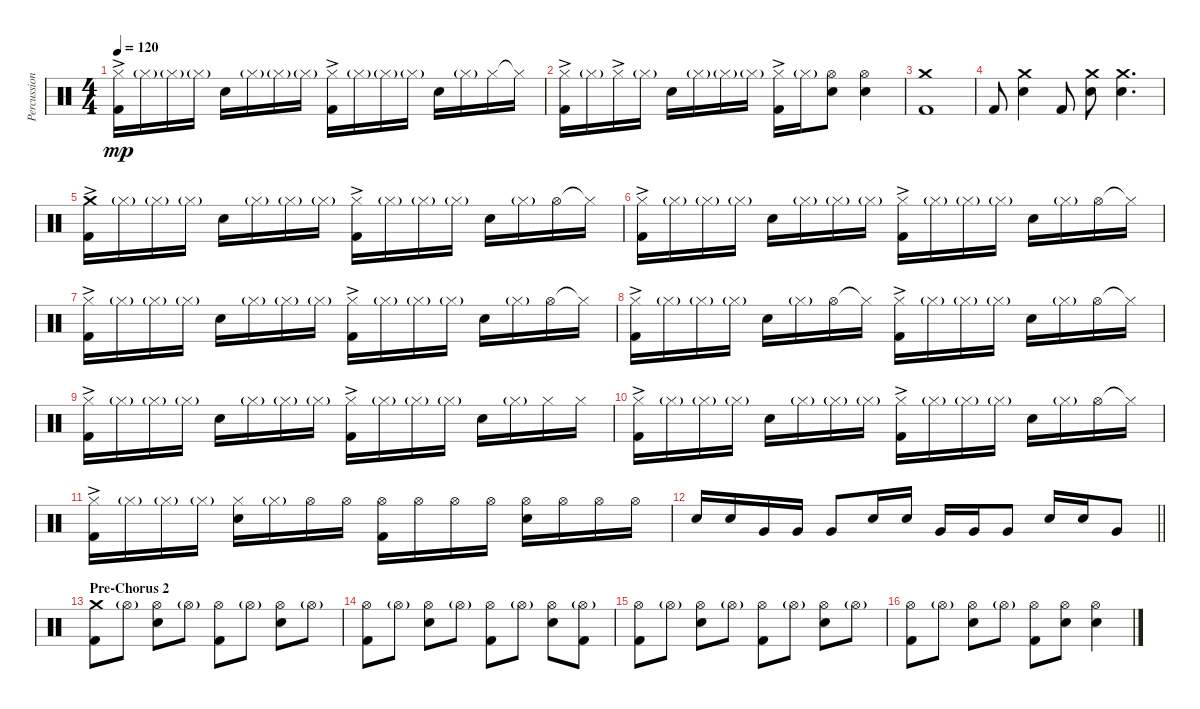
\track ("Percussion" "Percussion") {instrument percussion}
\staff {score}
\articulation defaults
\ts (4 4)
\tempo 120
\clef neutral
\ks c
("Hi-Hat (closed)"{ac} "Kick (hit) 2").16{dy mp volume 16} "Hi-Hat (closed)"{g}.16 "Hi-Hat (closed)"{g}.16 "Hi-Hat (closed)"{g}.16 "Electric Snare (hit)".16 "Hi-Hat (closed)"{g}.16 "Hi-Hat (closed)"{g}.16 "Hi-Hat (closed)"{g}.16 ("Hi-Hat (closed)"{ac} "Kick (hit) 2"{ac}).16 "Hi-Hat (closed)"{g}.16 "Hi-Hat (closed)"{g}.16 "Hi-Hat (closed)"{g}.16 "Electric Snare (hit)".16 "Hi-Hat (closed)"{g}.16 "Hi-Hat (closed)".16 "Hi-Hat (closed)"{t}.16 |
("Hi-Hat (closed)"{ac} "Kick (hit) 2").16 "Hi-Hat (closed)"{g}.16 "Hi-Hat (closed)"{ac}.16 "Hi-Hat (closed)"{g}.16 "Electric Snare (hit)".16 "Hi-Hat (closed)"{g}.16 "Hi-Hat (closed)"{g}.16 "Hi-Hat (closed)"{g}.16 ("Hi-Hat (closed)"{ac} "Kick (hit) 2").16 "Hi-Hat (closed)"{g}.16 ("Hi-Hat (open)" "Electric Snare (hit)").8 ("Hi-Hat (open)" "Electric Snare (hit)").4 |
("Crash medium (hit)" "Kick (hit) 2").1 |
"Kick (hit) 2".8 ("Crash medium (hit)" "Electric Snare (hit)").4 "Kick (hit) 2".8 ("Crash medium (hit)" "Electric Snare (hit)").8 ("Crash medium (hit)" "Electric Snare (hit)").4{d} |
("Crash medium (hit)"{ac} "Kick (hit) 2").16{volume 16} "Hi-Hat (closed)"{g}.16 "Hi-Hat (closed)"{g}.16 "Hi-Hat (closed)"{g}.16 "Electric Snare (hit)".16 "Hi-Hat (closed)"{g}.16 "Hi-Hat (closed)"{g}.16 "Hi-Hat (closed)"{g}.16 ("Hi-Hat (closed)"{ac} "Kick (hit) 2"{ac}).16 "Hi-Hat (closed)"{g}.16 "Hi-Hat (closed)"{g}.16 "Hi-Hat (closed)"{g}.16 "Electric Snare (hit)".16 "Hi-Hat (closed)"{g}.16 "Hi-Hat (open)".16 "Hi-Hat (closed)"{t}.16 |
("Hi-Hat (closed)"{ac} "Kick (hit) 2").16 "Hi-Hat (closed)"{g}.16 "Hi-Hat (closed)"{g}.16 "Hi-Hat (closed)"{g}.16 "Electric Snare (hit)".16 "Hi-Hat (closed)"{g}.16 "Hi-Hat (closed)"{g}.16 "Hi-Hat (closed)"{g}.16 ("Hi-Hat (closed)"{ac} "Kick (hit) 2"{ac}).16 "Hi-Hat (closed)"{g}.16 "Hi-Hat (closed)"{g}.16 "Hi-Hat (closed)"{g}.16 "Electric Snare (hit)".16 "Hi-Hat (closed)"{g}.16 "Hi-Hat (open)".16 "Hi-Hat (closed)"{t}.16 |
("Hi-Hat (closed)"{ac} "Kick (hit) 2").16 "Hi-Hat (closed)"{g}.16 "Hi-Hat (closed)"{g}.16 "Hi-Hat (closed)"{g}.16 "Electric Snare (hit)".16 "Hi-Hat (closed)"{g}.16 "Hi-Hat (closed)"{g}.16 "Hi-Hat (closed)"{g}.16 ("Hi-Hat (closed)"{ac} "Kick (hit) 2"{ac}).16 "Hi-Hat (closed)"{g}.16 "Hi-Hat (closed)"{g}.16 "Hi-Hat (closed)"{g}.16 "Electric Snare (hit)".16 "Hi-Hat (closed)"{g}.16 "Hi-Hat (open)".16 "Hi-Hat (closed)"{t}.16 |
("Hi-Hat (closed)"{ac} "Kick (hit) 2").16 "Hi-Hat (closed)"{g}.16 "Hi-Hat (closed)"{g}.16 "Hi-Hat (closed)"{g}.16 "Electric Snare (hit)".16 "Hi-Hat (closed)"{g}.16 "Hi-Hat (open)".16 "Hi-Hat (closed)"{t}.16 ("Hi-Hat (closed)"{ac} "Kick (hit) 2"{ac}).16 "Hi-Hat (closed)"{g}.16 "Hi-Hat (closed)"{g}.16 "Hi-Hat (closed)"{g}.16 "Electric Snare (hit)".16 "Hi-Hat (closed)"{g}.16 "Hi-Hat (open)".16 "Hi-Hat (closed)"{t}.16 |
("Hi-Hat (closed)"{ac} "Kick (hit) 2").16 "Hi-Hat (closed)"{g}.16 "Hi-Hat (closed)"{g}.16 "Hi-Hat (closed)"{g}.16 "Electric Snare (hit)".16 "Hi-Hat (closed)"{g}.16 "Hi-Hat (closed)"{g}.16 "Hi-Hat (closed)"{g}.16 ("Hi-Hat (closed)"{ac} "Kick (hit) 2"{ac}).16 "Hi-Hat (closed)"{g}.16 "Hi-Hat (closed)"{g}.16 "Hi-Hat (closed)"{g}.16 "Electric Snare (hit)".16 "Hi-Hat (closed)"{g}.16 "Hi-Hat (closed)".16 "Hi-Hat (closed)".16 |
("Hi-Hat (closed)"{ac} "Kick (hit) 2").16 "Hi-Hat (closed)"{g}.16 "Hi-Hat (closed)"{g}.16 "Hi-Hat (closed)"{g}.16 "Electric Snare (hit)".16 "Hi-Hat (closed)"{g}.16 "Hi-Hat (closed)"{g}.16 "Hi-Hat (closed)"{g}.16 ("Hi-Hat (closed)"{ac} "Kick (hit) 2"{ac}).16 "Hi-Hat (closed)"{g}.16 "Hi-Hat (closed)"{g}.16 "Hi-Hat (closed)"{g}.16 "Electric Snare (hit)".16 "Hi-Hat (closed)"{g}.16 "Hi-Hat (open)".16 "Hi-Hat (closed)"{t}.16 |
("Hi-Hat (closed)"{ac} "Kick (hit) 2").16 "Hi-Hat (closed)"{g}.16 "Hi-Hat (closed)"{g}.16 "Hi-Hat (closed)"{g}.16 ("Hi-Hat (closed)" "Electric Snare (hit)").16 "Hi-Hat (closed)"{g}.16 "Hi-Hat (open)".16 "Hi-Hat (open)".16 ("Hi-Hat (open)" "Kick (hit) 2").16 "Hi-Hat (open)".16 "Hi-Hat (open)".16 "Hi-Hat (open)".16 ("Hi-Hat (open)" "Electric Snare (hit)").16 "Hi-Hat (open)".16 "Hi-Hat (open)".16 "Hi-Hat (open)".16 |
\barLineRight lightlight "Electric Snare (hit)".16 "Electric Snare (hit)".16 "Very Low Tom (hit)".16 "Very Low Tom (hit)".16 "Very Low Tom (hit)".8 "Electric Snare (hit)".16 "Electric Snare (hit)".16 "Very Low Tom (hit)".16 "Very Low Tom (hit)".16 "Very Low Tom (hit)".8 "Electric Snare (hit)".16 "Electric Snare (hit)".16 "Very Low Tom (hit)".8
|
\section ("" "Pre-Chorus 2")
("Crash medium (hit)" "Kick (hit) 2").8 "Hi-Hat (open)"{g}.8 ("Hi-Hat (open)" "Electric Snare (hit)").8 "Hi-Hat (open)"{g}.8 ("Hi-Hat (open)" "Kick (hit) 2").8 "Hi-Hat (open)"{g}.8 ("Hi-Hat (open)" "Electric Snare (hit)").8 "Hi-Hat (open)"{g}.8 |
("Hi-Hat (open)" "Kick (hit) 2").8 "Hi-Hat (open)"{g}.8 ("Hi-Hat (open)" "Electric Snare (hit)").8 "Hi-Hat (open)"{g}.8 ("Hi-Hat (open)" "Kick (hit) 2").8 "Hi-Hat (open)"{g}.8 ("Hi-Hat (open)" "Electric Snare (hit)").8 ("Hi-Hat (open)"{g} "Kick (hit) 2").8 |
("Hi-Hat (open)" "Kick (hit) 2").8 "Hi-Hat (open)"{g}.8 ("Hi-Hat (open)" "Electric Snare (hit)").8 "Hi-Hat (open)"{g}.8 ("Hi-Hat (open)" "Kick (hit) 2").8 "Hi-Hat (open)"{g}.8 ("Hi-Hat (open)" "Electric Snare (hit)").8 "Hi-Hat (open)"{g}.8 |
("Hi-Hat (open)" "Kick (hit) 2").8 "Hi-Hat (open)"{g}.8 ("Hi-Hat (open)" "Electric Snare (hit)").8 "Hi-Hat (open)"{g}.8 ("Hi-Hat (open)" "Kick (hit) 2").8 ("Hi-Hat (open)" "Electric Snare (hit)").8 ("Hi-Hat (open)" "Electric Snare (hit)").4
